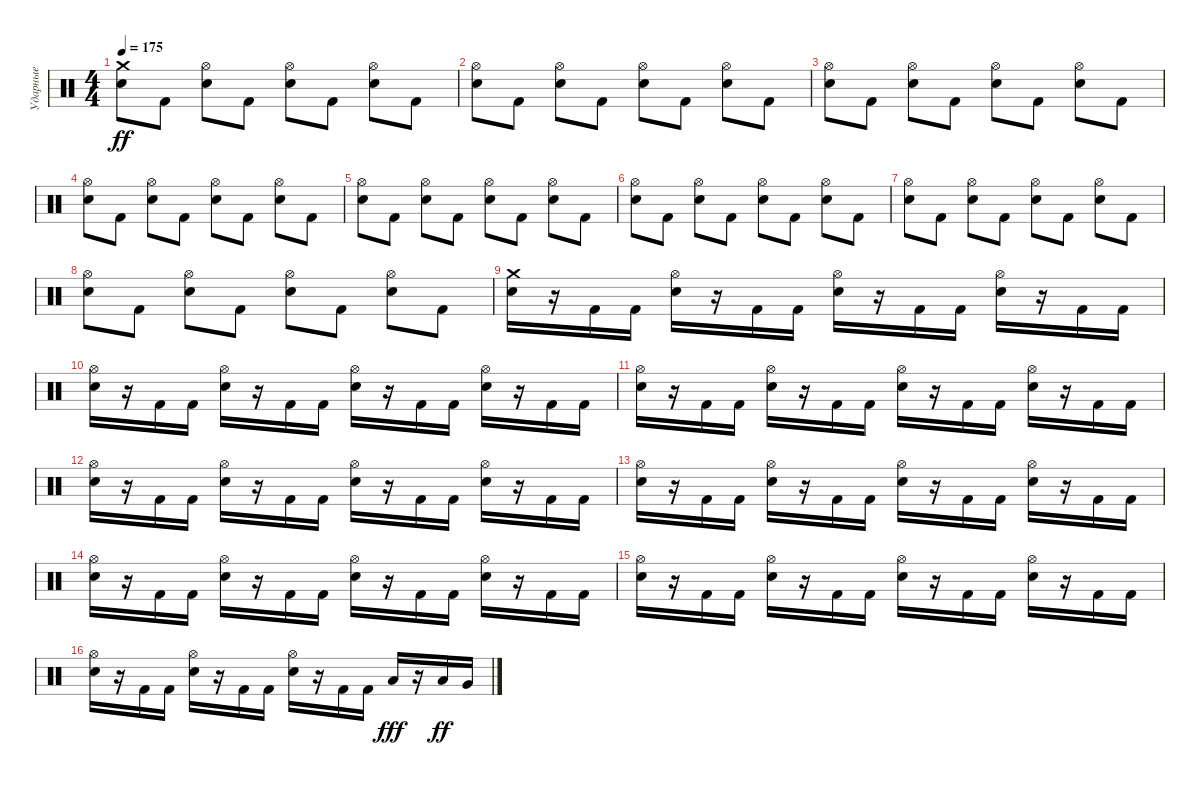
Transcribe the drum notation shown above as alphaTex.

\track ("Ударные" "Ударные") {instrument percussion}
\staff {score}
\articulation defaults
\ts (4 4)
\tempo 175
\clef neutral
\ks c
("Electric Snare (hit)" "Crash medium (hit)").8{dy ff} "Kick (hit) 2".8 ("Electric Snare (hit)" "Hi-Hat (open)").8 "Kick (hit) 2".8 ("Electric Snare (hit)" "Hi-Hat (open)").8 "Kick (hit) 2".8 ("Electric Snare (hit)" "Hi-Hat (open)").8 "Kick (hit) 2".8 |
("Electric Snare (hit)" "Hi-Hat (open)").8 "Kick (hit) 2".8 ("Electric Snare (hit)" "Hi-Hat (open)").8 "Kick (hit) 2".8 ("Electric Snare (hit)" "Hi-Hat (open)").8 "Kick (hit) 2".8 ("Electric Snare (hit)" "Hi-Hat (open)").8 "Kick (hit) 2".8 |
("Electric Snare (hit)" "Hi-Hat (open)").8 "Kick (hit) 2".8 ("Electric Snare (hit)" "Hi-Hat (open)").8 "Kick (hit) 2".8 ("Electric Snare (hit)" "Hi-Hat (open)").8 "Kick (hit) 2".8 ("Electric Snare (hit)" "Hi-Hat (open)").8 "Kick (hit) 2".8 |
("Electric Snare (hit)" "Hi-Hat (open)").8 "Kick (hit) 2".8 ("Electric Snare (hit)" "Hi-Hat (open)").8 "Kick (hit) 2".8 ("Electric Snare (hit)" "Hi-Hat (open)").8 "Kick (hit) 2".8 ("Electric Snare (hit)" "Hi-Hat (open)").8 "Kick (hit) 2".8 |
("Electric Snare (hit)" "Hi-Hat (open)").8 "Kick (hit) 2".8 ("Electric Snare (hit)" "Hi-Hat (open)").8 "Kick (hit) 2".8 ("Electric Snare (hit)" "Hi-Hat (open)").8 "Kick (hit) 2".8 ("Electric Snare (hit)" "Hi-Hat (open)").8 "Kick (hit) 2".8 |
("Electric Snare (hit)" "Hi-Hat (open)").8 "Kick (hit) 2".8 ("Electric Snare (hit)" "Hi-Hat (open)").8 "Kick (hit) 2".8 ("Electric Snare (hit)" "Hi-Hat (open)").8 "Kick (hit) 2".8 ("Electric Snare (hit)" "Hi-Hat (open)").8 "Kick (hit) 2".8 |
("Electric Snare (hit)" "Hi-Hat (open)").8 "Kick (hit) 2".8 ("Electric Snare (hit)" "Hi-Hat (open)").8 "Kick (hit) 2".8 ("Electric Snare (hit)" "Hi-Hat (open)").8 "Kick (hit) 2".8 ("Electric Snare (hit)" "Hi-Hat (open)").8 "Kick (hit) 2".8 |
("Electric Snare (hit)" "Hi-Hat (open)").8 "Kick (hit) 2".8 ("Electric Snare (hit)" "Hi-Hat (open)").8 "Kick (hit) 2".8 ("Electric Snare (hit)" "Hi-Hat (open)").8 "Kick (hit) 2".8 ("Electric Snare (hit)" "Hi-Hat (open)").8 "Kick (hit) 2".8 |
("Electric Snare (hit)" "Crash medium (hit)").16 r.16 "Kick (hit) 2".16 "Kick (hit) 2".16 ("Electric Snare (hit)" "Hi-Hat (open)").16 r.16 "Kick (hit) 2".16 "Kick (hit) 2".16 ("Electric Snare (hit)" "Hi-Hat (open)").16 r.16 "Kick (hit) 2".16 "Kick (hit) 2".16 ("Electric Snare (hit)" "Hi-Hat (open)").16 r.16 "Kick (hit) 2".16 "Kick (hit) 2".16 |
("Electric Snare (hit)" "Hi-Hat (open)").16 r.16 "Kick (hit) 2".16 "Kick (hit) 2".16 ("Electric Snare (hit)" "Hi-Hat (open)").16 r.16 "Kick (hit) 2".16 "Kick (hit) 2".16 ("Electric Snare (hit)" "Hi-Hat (open)").16 r.16 "Kick (hit) 2".16 "Kick (hit) 2".16 ("Electric Snare (hit)" "Hi-Hat (open)").16 r.16 "Kick (hit) 2".16 "Kick (hit) 2".16 |
("Electric Snare (hit)" "Hi-Hat (open)").16 r.16 "Kick (hit) 2".16 "Kick (hit) 2".16 ("Electric Snare (hit)" "Hi-Hat (open)").16 r.16 "Kick (hit) 2".16 "Kick (hit) 2".16 ("Electric Snare (hit)" "Hi-Hat (open)").16 r.16 "Kick (hit) 2".16 "Kick (hit) 2".16 ("Electric Snare (hit)" "Hi-Hat (open)").16 r.16 "Kick (hit) 2".16 "Kick (hit) 2".16 |
("Electric Snare (hit)" "Hi-Hat (open)").16 r.16 "Kick (hit) 2".16 "Kick (hit) 2".16 ("Electric Snare (hit)" "Hi-Hat (open)").16 r.16 "Kick (hit) 2".16 "Kick (hit) 2".16 ("Electric Snare (hit)" "Hi-Hat (open)").16 r.16 "Kick (hit) 2".16 "Kick (hit) 2".16 ("Electric Snare (hit)" "Hi-Hat (open)").16 r.16 "Kick (hit) 2".16 "Kick (hit) 2".16 |
("Electric Snare (hit)" "Hi-Hat (open)").16 r.16 "Kick (hit) 2".16 "Kick (hit) 2".16 ("Electric Snare (hit)" "Hi-Hat (open)").16 r.16 "Kick (hit) 2".16 "Kick (hit) 2".16 ("Electric Snare (hit)" "Hi-Hat (open)").16 r.16 "Kick (hit) 2".16 "Kick (hit) 2".16 ("Electric Snare (hit)" "Hi-Hat (open)").16 r.16 "Kick (hit) 2".16 "Kick (hit) 2".16 |
("Electric Snare (hit)" "Hi-Hat (open)").16 r.16 "Kick (hit) 2".16 "Kick (hit) 2".16 ("Electric Snare (hit)" "Hi-Hat (open)").16 r.16 "Kick (hit) 2".16 "Kick (hit) 2".16 ("Electric Snare (hit)" "Hi-Hat (open)").16 r.16 "Kick (hit) 2".16 "Kick (hit) 2".16 ("Electric Snare (hit)" "Hi-Hat (open)").16 r.16 "Kick (hit) 2".16 "Kick (hit) 2".16 |
("Electric Snare (hit)" "Hi-Hat (open)").16 r.16 "Kick (hit) 2".16 "Kick (hit) 2".16 ("Electric Snare (hit)" "Hi-Hat (open)").16 r.16 "Kick (hit) 2".16 "Kick (hit) 2".16 ("Electric Snare (hit)" "Hi-Hat (open)").16 r.16 "Kick (hit) 2".16 "Kick (hit) 2".16 ("Electric Snare (hit)" "Hi-Hat (open)").16 r.16 "Kick (hit) 2".16 "Kick (hit) 2".16 |
("Electric Snare (hit)" "Hi-Hat (open)").16 r.16 "Kick (hit) 2".16 "Kick (hit) 2".16 ("Electric Snare (hit)" "Hi-Hat (open)").16 r.16 "Kick (hit) 2".16 "Kick (hit) 2".16 ("Electric Snare (hit)" "Hi-Hat (open)").16 r.16 "Kick (hit) 2".16 "Kick (hit) 2".16 "Low Tom (hit)".16{dy fff} r.16 "Low Tom (hit)".16{dy ff} "Very Low Tom (hit)".16
